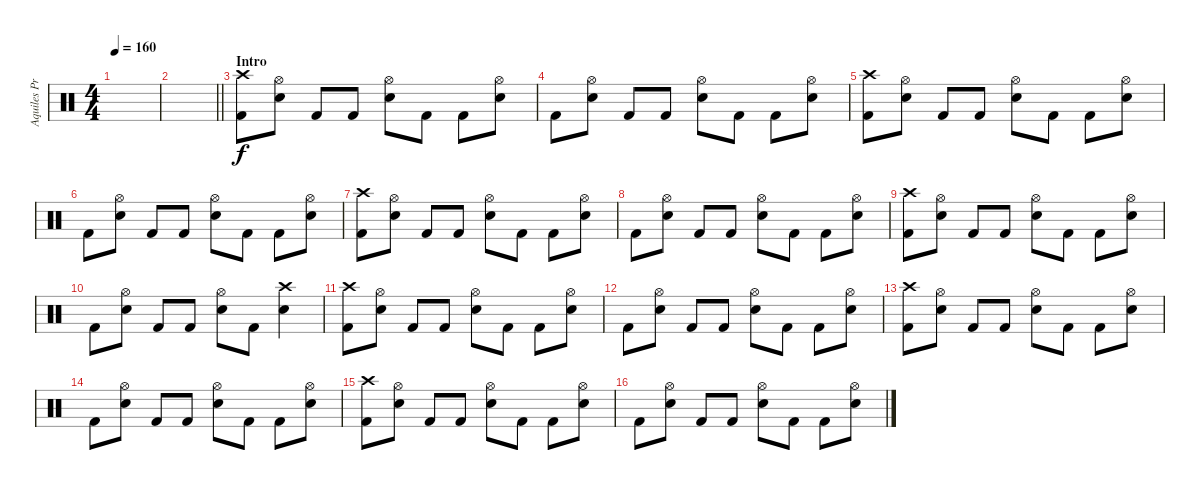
\track ("Aquiles Priester" "Aquiles Pr") {instrument percussion}
\staff {score}
\articulation defaults
\ts (4 4)
\tempo 160
\clef neutral
\ks c
|
\barLineRight lightlight
|
\section ("" "Intro")
("Crash high (hit)" "Kick (hit) 2").8 ("Hi-Hat (open)" "Electric Snare (hit)").8 "Kick (hit) 2".8 "Kick (hit) 2".8 ("Hi-Hat (open)" "Electric Snare (hit)").8 "Kick (hit) 2".8 "Kick (hit) 2".8 ("Hi-Hat (open)" "Electric Snare (hit)").8 |
"Kick (hit) 2".8 ("Hi-Hat (open)" "Electric Snare (hit)").8 "Kick (hit) 2".8 "Kick (hit) 2".8 ("Hi-Hat (open)" "Electric Snare (hit)").8 "Kick (hit) 2".8 "Kick (hit) 2".8 ("Hi-Hat (open)" "Electric Snare (hit)").8 |
("Crash high (hit)" "Kick (hit) 2").8 ("Hi-Hat (open)" "Electric Snare (hit)").8 "Kick (hit) 2".8 "Kick (hit) 2".8 ("Hi-Hat (open)" "Electric Snare (hit)").8 "Kick (hit) 2".8 "Kick (hit) 2".8 ("Hi-Hat (open)" "Electric Snare (hit)").8 |
"Kick (hit) 2".8 ("Hi-Hat (open)" "Electric Snare (hit)").8 "Kick (hit) 2".8 "Kick (hit) 2".8 ("Hi-Hat (open)" "Electric Snare (hit)").8 "Kick (hit) 2".8 "Kick (hit) 2".8 ("Hi-Hat (open)" "Electric Snare (hit)").8 |
("Crash high (hit)" "Kick (hit) 2").8 ("Hi-Hat (open)" "Electric Snare (hit)").8 "Kick (hit) 2".8 "Kick (hit) 2".8 ("Hi-Hat (open)" "Electric Snare (hit)").8 "Kick (hit) 2".8 "Kick (hit) 2".8 ("Hi-Hat (open)" "Electric Snare (hit)").8 |
"Kick (hit) 2".8 ("Hi-Hat (open)" "Electric Snare (hit)").8 "Kick (hit) 2".8 "Kick (hit) 2".8 ("Hi-Hat (open)" "Electric Snare (hit)").8 "Kick (hit) 2".8 "Kick (hit) 2".8 ("Hi-Hat (open)" "Electric Snare (hit)").8 |
("Crash high (hit)" "Kick (hit) 2").8 ("Hi-Hat (open)" "Electric Snare (hit)").8 "Kick (hit) 2".8 "Kick (hit) 2".8 ("Hi-Hat (open)" "Electric Snare (hit)").8 "Kick (hit) 2".8 "Kick (hit) 2".8 ("Hi-Hat (open)" "Electric Snare (hit)").8 |
"Kick (hit) 2".8 ("Hi-Hat (open)" "Electric Snare (hit)").8 "Kick (hit) 2".8 "Kick (hit) 2".8 ("Hi-Hat (open)" "Electric Snare (hit)").8 "Kick (hit) 2".8 ("Crash high (hit)" "Electric Snare (hit)").4 |
("Crash high (hit)" "Kick (hit) 2").8 ("Hi-Hat (open)" "Electric Snare (hit)").8 "Kick (hit) 2".8 "Kick (hit) 2".8 ("Hi-Hat (open)" "Electric Snare (hit)").8 "Kick (hit) 2".8 "Kick (hit) 2".8 ("Hi-Hat (open)" "Electric Snare (hit)").8 |
"Kick (hit) 2".8 ("Hi-Hat (open)" "Electric Snare (hit)").8 "Kick (hit) 2".8 "Kick (hit) 2".8 ("Hi-Hat (open)" "Electric Snare (hit)").8 "Kick (hit) 2".8 "Kick (hit) 2".8 ("Hi-Hat (open)" "Electric Snare (hit)").8 |
("Crash high (hit)" "Kick (hit) 2").8 ("Hi-Hat (open)" "Electric Snare (hit)").8 "Kick (hit) 2".8 "Kick (hit) 2".8 ("Hi-Hat (open)" "Electric Snare (hit)").8 "Kick (hit) 2".8 "Kick (hit) 2".8 ("Hi-Hat (open)" "Electric Snare (hit)").8 |
"Kick (hit) 2".8 ("Hi-Hat (open)" "Electric Snare (hit)").8 "Kick (hit) 2".8 "Kick (hit) 2".8 ("Hi-Hat (open)" "Electric Snare (hit)").8 "Kick (hit) 2".8 "Kick (hit) 2".8 ("Hi-Hat (open)" "Electric Snare (hit)").8 |
("Crash high (hit)" "Kick (hit) 2").8 ("Hi-Hat (open)" "Electric Snare (hit)").8 "Kick (hit) 2".8 "Kick (hit) 2".8 ("Hi-Hat (open)" "Electric Snare (hit)").8 "Kick (hit) 2".8 "Kick (hit) 2".8 ("Hi-Hat (open)" "Electric Snare (hit)").8 |
"Kick (hit) 2".8 ("Hi-Hat (open)" "Electric Snare (hit)").8 "Kick (hit) 2".8 "Kick (hit) 2".8 ("Hi-Hat (open)" "Electric Snare (hit)").8 "Kick (hit) 2".8 "Kick (hit) 2".8 ("Hi-Hat (open)" "Electric Snare (hit)").8
